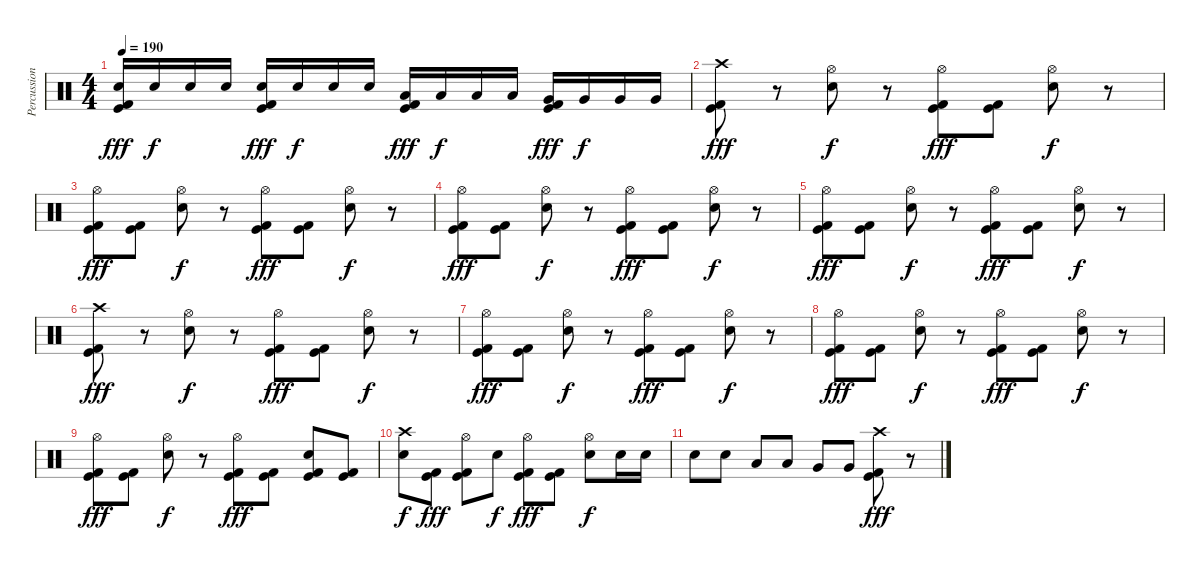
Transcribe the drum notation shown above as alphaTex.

\track ("Percussion" "Percussion") {instrument percussion}
\staff {score}
\articulation defaults
\ts (4 4)
\tempo 190
\clef neutral
\ks c
("Electric Snare (hit)" "Kick (hit)" "Kick (hit) 2").16{dy fff} "Electric Snare (hit)".16{dy f} "Electric Snare (hit)".16 "Electric Snare (hit)".16 ("Electric Snare (hit)" "Kick (hit)" "Kick (hit) 2").16{dy fff} "Electric Snare (hit)".16{dy f} "Electric Snare (hit)".16 "Electric Snare (hit)".16 ("Low Tom (hit)" "Kick (hit)" "Kick (hit) 2").16{dy fff} "Low Tom (hit)".16{dy f} "Low Tom (hit)".16 "Low Tom (hit)".16 ("Very Low Tom (hit)" "Kick (hit)" "Kick (hit) 2").16{dy fff} "Very Low Tom (hit)".16{dy f} "Very Low Tom (hit)".16 "Very Low Tom (hit)".16 |
("Crash high (hit)" "Kick (hit)" "Kick (hit) 2").8{dy fff} r.8 ("Hi-Hat (open)" "Electric Snare (hit)").8{dy f} r.8 ("Hi-Hat (open)" "Kick (hit)" "Kick (hit) 2").8{dy fff} ("Kick (hit)" "Kick (hit) 2").8 ("Hi-Hat (open)" "Electric Snare (hit)").8{dy f} r.8 |
("Hi-Hat (open)" "Kick (hit)" "Kick (hit) 2").8{dy fff} ("Kick (hit)" "Kick (hit) 2").8 ("Hi-Hat (open)" "Electric Snare (hit)").8{dy f} r.8 ("Hi-Hat (open)" "Kick (hit)" "Kick (hit) 2").8{dy fff} ("Kick (hit)" "Kick (hit) 2").8 ("Hi-Hat (open)" "Electric Snare (hit)").8{dy f} r.8 |
("Hi-Hat (open)" "Kick (hit)" "Kick (hit) 2").8{dy fff} ("Kick (hit)" "Kick (hit) 2").8 ("Hi-Hat (open)" "Electric Snare (hit)").8{dy f} r.8 ("Hi-Hat (open)" "Kick (hit)" "Kick (hit) 2").8{dy fff} ("Kick (hit)" "Kick (hit) 2").8 ("Hi-Hat (open)" "Electric Snare (hit)").8{dy f} r.8 |
("Hi-Hat (open)" "Kick (hit)" "Kick (hit) 2").8{dy fff} ("Kick (hit)" "Kick (hit) 2").8 ("Hi-Hat (open)" "Electric Snare (hit)").8{dy f} r.8 ("Hi-Hat (open)" "Kick (hit)" "Kick (hit) 2").8{dy fff} ("Kick (hit)" "Kick (hit) 2").8 ("Hi-Hat (open)" "Electric Snare (hit)").8{dy f} r.8 |
("Crash high (hit)" "Kick (hit)" "Kick (hit) 2").8{dy fff} r.8 ("Hi-Hat (open)" "Electric Snare (hit)").8{dy f} r.8 ("Hi-Hat (open)" "Kick (hit)" "Kick (hit) 2").8{dy fff} ("Kick (hit)" "Kick (hit) 2").8 ("Hi-Hat (open)" "Electric Snare (hit)").8{dy f} r.8 |
("Hi-Hat (open)" "Kick (hit)" "Kick (hit) 2").8{dy fff} ("Kick (hit)" "Kick (hit) 2").8 ("Hi-Hat (open)" "Electric Snare (hit)").8{dy f} r.8 ("Hi-Hat (open)" "Kick (hit)" "Kick (hit) 2").8{dy fff} ("Kick (hit)" "Kick (hit) 2").8 ("Hi-Hat (open)" "Electric Snare (hit)").8{dy f} r.8 |
("Hi-Hat (open)" "Kick (hit)" "Kick (hit) 2").8{dy fff} ("Kick (hit)" "Kick (hit) 2").8 ("Hi-Hat (open)" "Electric Snare (hit)").8{dy f} r.8 ("Hi-Hat (open)" "Kick (hit)" "Kick (hit) 2").8{dy fff} ("Kick (hit)" "Kick (hit) 2").8 ("Hi-Hat (open)" "Electric Snare (hit)").8{dy f} r.8 |
("Hi-Hat (open)" "Kick (hit)" "Kick (hit) 2").8{dy fff} ("Kick (hit)" "Kick (hit) 2").8 ("Hi-Hat (open)" "Electric Snare (hit)").8{dy f} r.8 ("Hi-Hat (open)" "Kick (hit)" "Kick (hit) 2").8{dy fff} ("Kick (hit)" "Kick (hit) 2").8 ("Electric Snare (hit)" "Kick (hit)" "Kick (hit) 2").8 ("Kick (hit)" "Kick (hit) 2").8 |
("Crash high (hit)" "Electric Snare (hit)").8{dy f} ("Kick (hit)" "Kick (hit) 2").8{dy fff} ("Hi-Hat (open)" "Kick (hit)" "Kick (hit) 2").8 "Electric Snare (hit)".8{dy f} ("Hi-Hat (open)" "Kick (hit)" "Kick (hit) 2").8{dy fff} ("Kick (hit)" "Kick (hit) 2").8 ("Hi-Hat (open)" "Electric Snare (hit)").8{dy f} "Electric Snare (hit)".16 "Electric Snare (hit)".16 |
"Electric Snare (hit)".8 "Electric Snare (hit)".8 "Low Tom (hit)".8 "Low Tom (hit)".8 "Very Low Tom (hit)".8 "Very Low Tom (hit)".8 ("Crash high (hit)" "Kick (hit)" "Kick (hit) 2").8{dy fff} r.8
